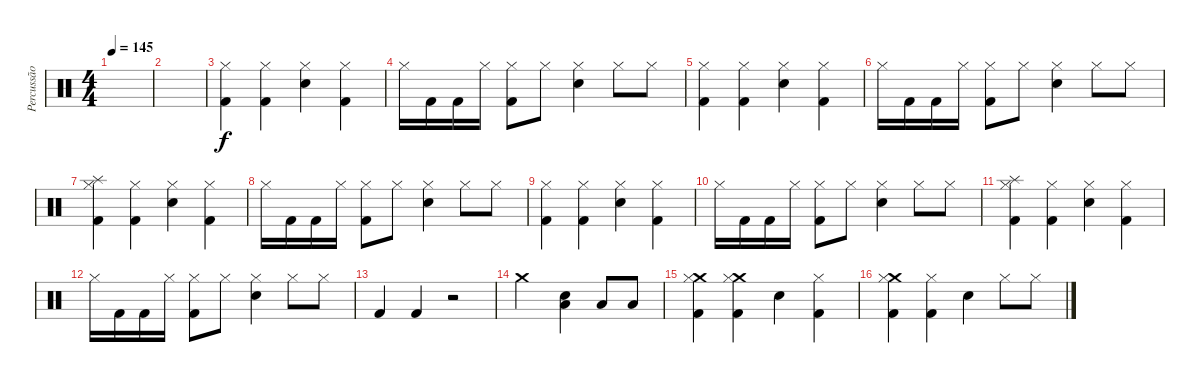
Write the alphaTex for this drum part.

\track ("Percussão" "Percussão") {instrument percussion}
\staff {score}
\articulation defaults
\ts (4 4)
\tempo 145
\clef neutral
\ks c
|
|
("Hi-Hat (closed)" "Kick (hit) 2").4 ("Hi-Hat (closed)" "Kick (hit) 2").4 ("Hi-Hat (closed)" "Snare (hit) 2").4 ("Hi-Hat (closed)" "Kick (hit) 2").4 |
"Hi-Hat (closed)".16 "Kick (hit) 2".16 "Kick (hit) 2".16 "Hi-Hat (closed)".16 ("Hi-Hat (closed)" "Kick (hit) 2").8 "Hi-Hat (closed)".8 ("Hi-Hat (closed)" "Snare (hit) 2").4 "Hi-Hat (closed)".8 "Hi-Hat (closed)".8 |
("Hi-Hat (closed)" "Kick (hit) 2").4 ("Hi-Hat (closed)" "Kick (hit) 2").4 ("Hi-Hat (closed)" "Snare (hit) 2").4 ("Hi-Hat (closed)" "Kick (hit) 2").4 |
"Hi-Hat (closed)".16 "Kick (hit) 2".16 "Kick (hit) 2".16 "Hi-Hat (closed)".16 ("Hi-Hat (closed)" "Kick (hit) 2").8 "Hi-Hat (closed)".8 ("Hi-Hat (closed)" "Snare (hit) 2").4 "Hi-Hat (closed)".8 "Hi-Hat (closed)".8 |
("Splash (hit)" "Hi-Hat (closed)" "Kick (hit) 2").4 ("Hi-Hat (closed)" "Kick (hit) 2").4 ("Hi-Hat (closed)" "Snare (hit) 2").4 ("Hi-Hat (closed)" "Kick (hit) 2").4 |
"Hi-Hat (closed)".16 "Kick (hit) 2".16 "Kick (hit) 2".16 "Hi-Hat (closed)".16 ("Hi-Hat (closed)" "Kick (hit) 2").8 "Hi-Hat (closed)".8 ("Hi-Hat (closed)" "Snare (hit) 2").4 "Hi-Hat (closed)".8 "Hi-Hat (closed)".8 |
("Hi-Hat (closed)" "Kick (hit) 2").4 ("Hi-Hat (closed)" "Kick (hit) 2").4 ("Hi-Hat (closed)" "Snare (hit) 2").4 ("Hi-Hat (closed)" "Kick (hit) 2").4 |
"Hi-Hat (closed)".16 "Kick (hit) 2".16 "Kick (hit) 2".16 "Hi-Hat (closed)".16 ("Hi-Hat (closed)" "Kick (hit) 2").8 "Hi-Hat (closed)".8 ("Hi-Hat (closed)" "Snare (hit) 2").4 "Hi-Hat (closed)".8 "Hi-Hat (closed)".8 |
("Splash (hit)" "Hi-Hat (closed)" "Kick (hit) 2").4 ("Hi-Hat (closed)" "Kick (hit) 2").4 ("Hi-Hat (closed)" "Snare (hit) 2").4 ("Hi-Hat (closed)" "Kick (hit) 2").4 |
"Hi-Hat (closed)".16 "Kick (hit) 2".16 "Kick (hit) 2".16 "Hi-Hat (closed)".16 ("Hi-Hat (closed)" "Kick (hit) 2").8 "Hi-Hat (closed)".8 ("Hi-Hat (closed)" "Snare (hit) 2").4 "Hi-Hat (closed)".8 "Hi-Hat (closed)".8 |
"Kick (hit) 2".4 "Kick (hit) 2".4 r.2 |
"Crash medium (hit)".2{volume 16} ("Low Floor Tom (hit)" "Snare (hit) 2").4 "Low Floor Tom (hit)".8 "Low Floor Tom (hit)".8 |
("Crash medium (hit)" "Hi-Hat (closed)" "Kick (hit) 2").4{volume 13} ("Crash medium (hit)" "Hi-Hat (closed)" "Kick (hit) 2").4 "Snare (hit) 2".4 ("Hi-Hat (closed)" "Kick (hit) 2").4 |
("Crash medium (hit)" "Hi-Hat (closed)" "Kick (hit) 2").4 ("Hi-Hat (closed)" "Kick (hit) 2").4 "Snare (hit) 2".4 "Hi-Hat (closed)".8 "Hi-Hat (closed)".8
